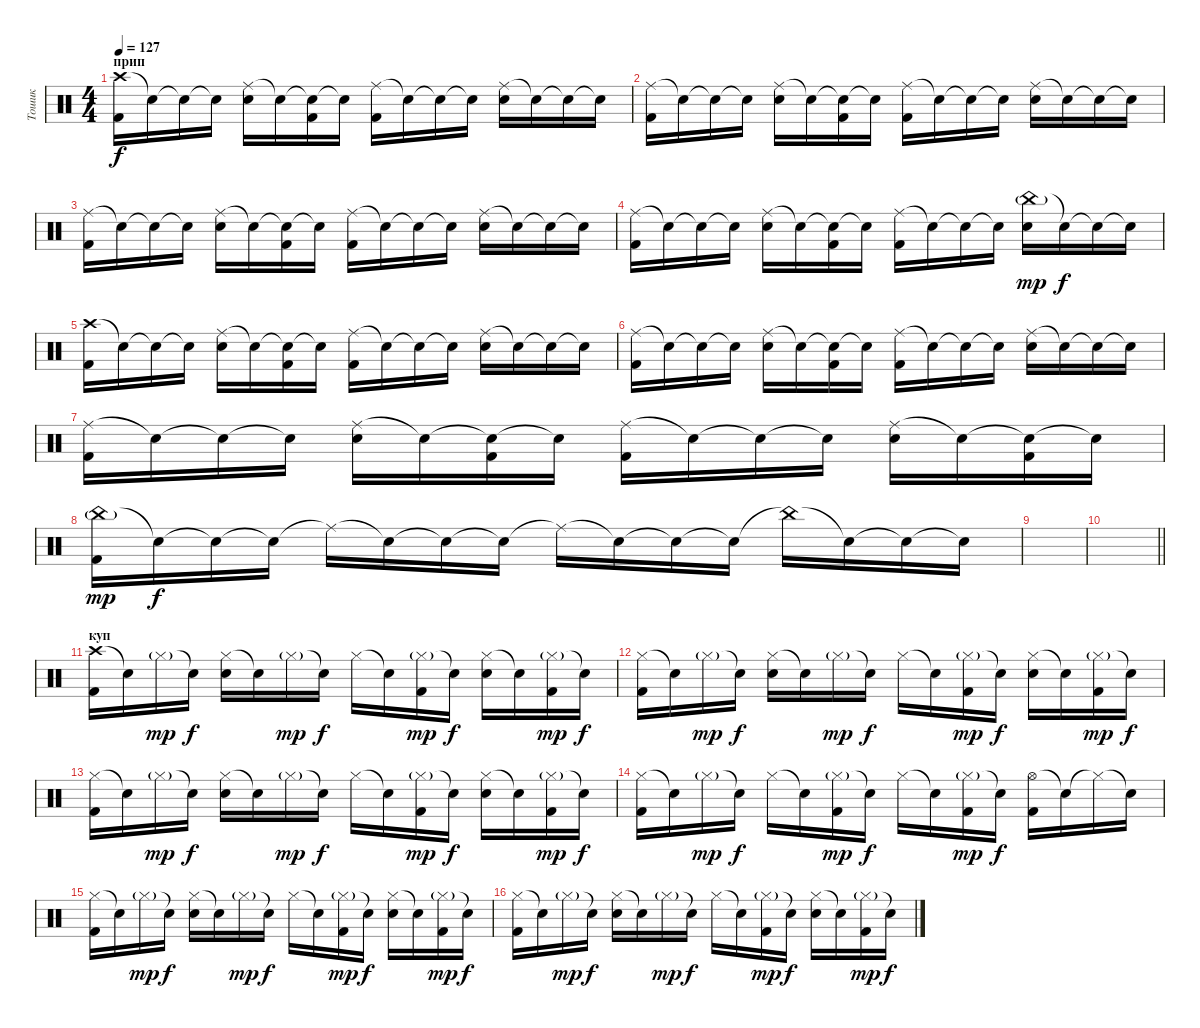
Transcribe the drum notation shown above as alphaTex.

\track ("Тошик" "Тошик") {instrument percussion}
\staff {score}
\articulation defaults
\ts (4 4)
\section ("" "прип")
\tempo 127
\clef neutral
\ks c
("Crash high (hit)" "Kick (hit) 2").16{dy f} "Snare (hit)"{t}.16 "Snare (hit)"{t}.16 "Snare (hit)"{t}.16 ("Ride (middle)" "Snare (hit) 2").16 "Snare (hit)"{t}.16 ("Snare (hit)"{t} "Kick (hit) 2").16 "Snare (hit)"{t}.16 ("Ride (middle)" "Kick (hit) 2").16 "Snare (hit)"{t}.16 "Snare (hit)"{t}.16 "Snare (hit)"{t}.16 ("Ride (middle)" "Snare (hit) 2").16 "Snare (hit)"{t}.16 "Snare (hit)"{t}.16 "Snare (hit)"{t}.16 |
("Ride (middle)" "Kick (hit) 2").16 "Snare (hit)"{t}.16 "Snare (hit)"{t}.16 "Snare (hit)"{t}.16 ("Ride (middle)" "Snare (hit) 2").16 "Snare (hit)"{t}.16 ("Snare (hit)"{t} "Kick (hit) 2").16 "Snare (hit)"{t}.16 ("Ride (middle)" "Kick (hit) 2").16 "Snare (hit)"{t}.16 "Snare (hit)"{t}.16 "Snare (hit)"{t}.16 ("Ride (middle)" "Snare (hit) 2").16 "Snare (hit)"{t}.16 "Snare (hit)"{t}.16 "Snare (hit)"{t}.16 |
("Ride (middle)" "Kick (hit) 2").16 "Snare (hit)"{t}.16 "Snare (hit)"{t}.16 "Snare (hit)"{t}.16 ("Ride (middle)" "Snare (hit) 2").16 "Snare (hit)"{t}.16 ("Snare (hit)"{t} "Kick (hit) 2").16 "Snare (hit)"{t}.16 ("Ride (middle)" "Kick (hit) 2").16 "Snare (hit)"{t}.16 "Snare (hit)"{t}.16 "Snare (hit)"{t}.16 ("Ride (middle)" "Snare (hit) 2").16 "Snare (hit)"{t}.16 "Snare (hit)"{t}.16 "Snare (hit)"{t}.16 |
("Ride (middle)" "Kick (hit) 2").16 "Snare (hit)"{t}.16 "Snare (hit)"{t}.16 "Snare (hit)"{t}.16 ("Ride (middle)" "Snare (hit) 2").16 "Snare (hit)"{t}.16 ("Snare (hit)"{t} "Kick (hit) 2").16 "Snare (hit)"{t}.16 ("Ride (middle)" "Kick (hit) 2").16 "Snare (hit)"{t}.16 "Snare (hit)"{t}.16 "Snare (hit)"{t}.16 ("China (hit)"{g} "Snare (hit) 2").16{dy mp} "Snare (hit)"{t}.16{dy f} "Snare (hit)"{t}.16 "Snare (hit)"{t}.16 |
("Crash high (hit)" "Kick (hit) 2").16 "Snare (hit)"{t}.16 "Snare (hit)"{t}.16 "Snare (hit)"{t}.16 ("Ride (middle)" "Snare (hit) 2").16 "Snare (hit)"{t}.16 ("Snare (hit)"{t} "Kick (hit) 2").16 "Snare (hit)"{t}.16 ("Ride (middle)" "Kick (hit) 2").16 "Snare (hit)"{t}.16 "Snare (hit)"{t}.16 "Snare (hit)"{t}.16 ("Ride (middle)" "Snare (hit) 2").16 "Snare (hit)"{t}.16 "Snare (hit)"{t}.16 "Snare (hit)"{t}.16 |
("Ride (middle)" "Kick (hit) 2").16 "Snare (hit)"{t}.16 "Snare (hit)"{t}.16 "Snare (hit)"{t}.16 ("Ride (middle)" "Snare (hit) 2").16 "Snare (hit)"{t}.16 ("Snare (hit)"{t} "Kick (hit) 2").16 "Snare (hit)"{t}.16 ("Ride (middle)" "Kick (hit) 2").16 "Snare (hit)"{t}.16 "Snare (hit)"{t}.16 "Snare (hit)"{t}.16 ("Ride (middle)" "Snare (hit) 2").16 "Snare (hit)"{t}.16 "Snare (hit)"{t}.16 "Snare (hit)"{t}.16 |
("Ride (middle)" "Kick (hit) 2").16 "Snare (hit)"{t}.16 "Snare (hit)"{t}.16 "Snare (hit)"{t}.16 ("Ride (middle)" "Snare (hit) 2").16 "Snare (hit)"{t}.16 ("Snare (hit)"{t} "Kick (hit) 2").16 "Snare (hit)"{t}.16 ("Ride (middle)" "Kick (hit) 2").16 "Snare (hit)"{t}.16 "Snare (hit)"{t}.16 "Snare (hit)"{t}.16 ("Ride (middle)" "Snare (hit) 2").16 "Snare (hit)"{t}.16 ("Snare (hit)"{t} "Kick (hit) 2").16 "Snare (hit)"{t}.16 |
("China (hit)"{g} "Kick (hit) 2").16{dy mp} "Snare (hit)"{t}.16{dy f} "Snare (hit)"{t}.16 "Snare (hit)"{t}.16 "Ride (middle)"{t}.16 "Snare (hit)"{t}.16 "Snare (hit)"{t}.16 "Snare (hit)"{t}.16 "Ride (middle)"{t}.16 "Snare (hit)"{t}.16 "Snare (hit)"{t}.16 "Snare (hit)"{t}.16 "China (hit)"{t}.16 "Snare (hit)"{t}.16 "Snare (hit)"{t}.16 "Snare (hit)"{t}.16 |
|
\barLineRight lightlight
|
\section ("" "куп")
("Crash high (hit)" "Kick (hit) 2").16 "Snare (hit)"{t}.16 "Hi-Hat (closed)"{g}.16{dy mp} "Snare (hit)"{t}.16{dy f} ("Hi-Hat (closed)" "Snare (hit) 2").16 "Snare (hit)"{t}.16 "Hi-Hat (closed)"{g}.16{dy mp} "Snare (hit)"{t}.16{dy f} "Hi-Hat (closed)".16 "Snare (hit)"{t}.16 ("Hi-Hat (closed)"{g} "Kick (hit) 2").16{dy mp} "Snare (hit)"{t}.16{dy f} ("Hi-Hat (closed)" "Snare (hit) 2").16 "Snare (hit)"{t}.16 ("Hi-Hat (closed)"{g} "Kick (hit) 2").16{dy mp} "Snare (hit)"{t}.16{dy f} |
("Hi-Hat (closed)" "Kick (hit) 2").16 "Snare (hit)"{t}.16 "Hi-Hat (closed)"{g}.16{dy mp} "Snare (hit)"{t}.16{dy f} ("Hi-Hat (closed)" "Snare (hit) 2").16 "Snare (hit)"{t}.16 "Hi-Hat (closed)"{g}.16{dy mp} "Snare (hit)"{t}.16{dy f} "Hi-Hat (closed)".16 "Snare (hit)"{t}.16 ("Hi-Hat (closed)"{g} "Kick (hit) 2").16{dy mp} "Snare (hit)"{t}.16{dy f} ("Hi-Hat (closed)" "Snare (hit) 2").16 "Snare (hit)"{t}.16 ("Hi-Hat (closed)"{g} "Kick (hit) 2").16{dy mp} "Snare (hit)"{t}.16{dy f} |
("Hi-Hat (closed)" "Kick (hit) 2").16 "Snare (hit)"{t}.16 "Hi-Hat (closed)"{g}.16{dy mp} "Snare (hit)"{t}.16{dy f} ("Hi-Hat (closed)" "Snare (hit) 2").16 "Snare (hit)"{t}.16 "Hi-Hat (closed)"{g}.16{dy mp} "Snare (hit)"{t}.16{dy f} "Hi-Hat (closed)".16 "Snare (hit)"{t}.16 ("Hi-Hat (closed)"{g} "Kick (hit) 2").16{dy mp} "Snare (hit)"{t}.16{dy f} ("Hi-Hat (closed)" "Snare (hit) 2").16 "Snare (hit)"{t}.16 ("Hi-Hat (closed)"{g} "Kick (hit) 2").16{dy mp} "Snare (hit)"{t}.16{dy f} |
("Hi-Hat (closed)" "Kick (hit) 2").16 "Snare (hit)"{t}.16 "Hi-Hat (closed)"{g}.16{dy mp} "Snare (hit)"{t}.16{dy f} "Hi-Hat (closed)".16 "Snare (hit)"{t}.16 ("Hi-Hat (closed)"{g} "Kick (hit) 2").16{dy mp} "Snare (hit)"{t}.16{dy f} "Hi-Hat (closed)".16 "Snare (hit)"{t}.16 ("Hi-Hat (closed)"{g} "Kick (hit) 2").16{dy mp} "Snare (hit)"{t}.16{dy f} ("Hi-Hat (open)" "Kick (hit) 2").16 "Snare (hit)"{t}.16 "Hi-Hat (closed)"{t}.16 "Snare (hit)"{t}.16 |
("Hi-Hat (closed)" "Kick (hit) 2").16 "Snare (hit)"{t}.16 "Hi-Hat (closed)"{g}.16{dy mp} "Snare (hit)"{t}.16{dy f} ("Hi-Hat (closed)" "Snare (hit) 2").16 "Snare (hit)"{t}.16 "Hi-Hat (closed)"{g}.16{dy mp} "Snare (hit)"{t}.16{dy f} "Hi-Hat (closed)".16 "Snare (hit)"{t}.16 ("Hi-Hat (closed)"{g} "Kick (hit) 2").16{dy mp} "Snare (hit)"{t}.16{dy f} ("Hi-Hat (closed)" "Snare (hit) 2").16 "Snare (hit)"{t}.16 ("Hi-Hat (closed)"{g} "Kick (hit) 2").16{dy mp} "Snare (hit)"{t}.16{dy f} |
("Hi-Hat (closed)" "Kick (hit) 2").16 "Snare (hit)"{t}.16 "Hi-Hat (closed)"{g}.16{dy mp} "Snare (hit)"{t}.16{dy f} ("Hi-Hat (closed)" "Snare (hit) 2").16 "Snare (hit)"{t}.16 "Hi-Hat (closed)"{g}.16{dy mp} "Snare (hit)"{t}.16{dy f} "Hi-Hat (closed)".16 "Snare (hit)"{t}.16 ("Hi-Hat (closed)"{g} "Kick (hit) 2").16{dy mp} "Snare (hit)"{t}.16{dy f} ("Hi-Hat (closed)" "Snare (hit) 2").16 "Snare (hit)"{t}.16 ("Hi-Hat (closed)"{g} "Kick (hit) 2").16{dy mp} "Snare (hit)"{t}.16{dy f}
